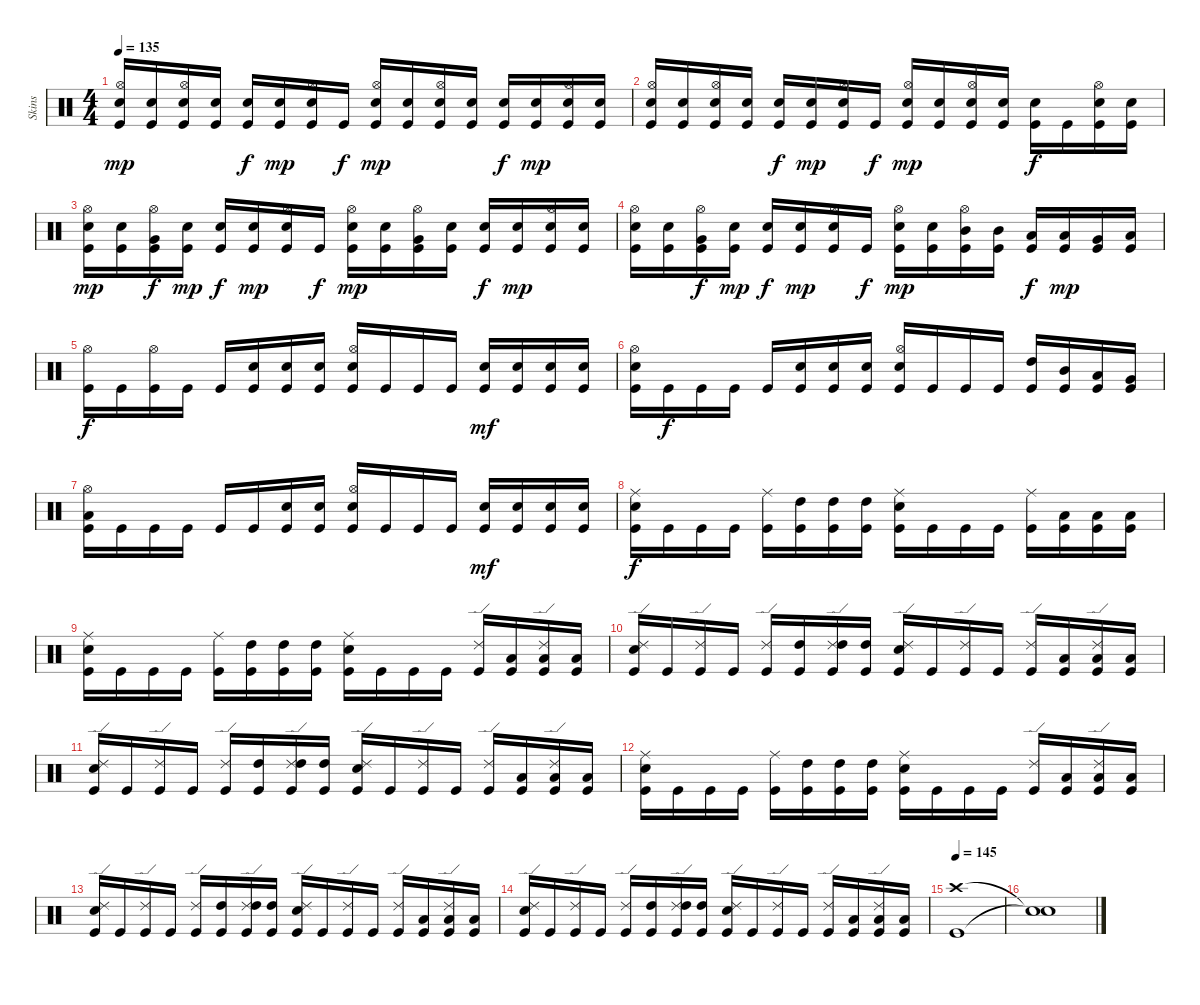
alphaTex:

\track ("Skins" "Skins") {instrument percussion}
\staff {score}
\articulation defaults
\ts (4 4)
\tempo 135
\clef neutral
\ks c
("Electric Snare (hit)" "Hi-Hat (open)" "Kick (hit)").16{dy mp} ("Electric Snare (hit)" "Kick (hit)").16 ("Electric Snare (hit)" "Hi-Hat (open)" "Kick (hit)").16 ("Electric Snare (hit)" "Kick (hit)").16 ("Snare (hit) 2" "Kick (hit)").16{dy f} ("Electric Snare (hit)" "Kick (hit)").16{dy mp} ("Electric Snare (hit)" "Hi-Hat (open)" "Kick (hit)").16 "Kick (hit)".16{dy f} ("Electric Snare (hit)" "Hi-Hat (open)" "Kick (hit)").16{dy mp} ("Electric Snare (hit)" "Kick (hit)").16 ("Electric Snare (hit)" "Hi-Hat (open)" "Kick (hit)").16 ("Electric Snare (hit)" "Kick (hit)").16 ("Snare (hit) 2" "Kick (hit)").16{dy f} ("Electric Snare (hit)" "Kick (hit)").16{dy mp} ("Electric Snare (hit)" "Hi-Hat (open)" "Kick (hit)").16 ("Electric Snare (hit)" "Kick (hit)").16 |
("Electric Snare (hit)" "Hi-Hat (open)" "Kick (hit)").16 ("Electric Snare (hit)" "Kick (hit)").16 ("Electric Snare (hit)" "Hi-Hat (open)" "Kick (hit)").16 ("Electric Snare (hit)" "Kick (hit)").16 ("Snare (hit) 2" "Kick (hit)").16{dy f} ("Electric Snare (hit)" "Kick (hit)").16{dy mp} ("Electric Snare (hit)" "Hi-Hat (open)" "Kick (hit)").16 "Kick (hit)".16{dy f} ("Electric Snare (hit)" "Hi-Hat (open)" "Kick (hit)").16{dy mp} ("Electric Snare (hit)" "Kick (hit)").16 ("Electric Snare (hit)" "Hi-Hat (open)" "Kick (hit)").16 ("Electric Snare (hit)" "Kick (hit)").16 ("Snare (hit) 2" "Kick (hit)").16{dy f} "Kick (hit)".16 ("Snare (hit) 2" "Hi-Hat (open)" "Kick (hit)").16 ("Snare (hit) 2" "Kick (hit)").16 |
("Electric Snare (hit)" "Hi-Hat (open)" "Kick (hit)").16{dy mp} ("Electric Snare (hit)" "Kick (hit)").16 ("Very Low Tom (hit)" "Hi-Hat (open)" "Kick (hit)").16{dy f} ("Electric Snare (hit)" "Kick (hit)").16{dy mp} ("Snare (hit) 2" "Kick (hit)").16{dy f} ("Electric Snare (hit)" "Kick (hit)").16{dy mp} ("Electric Snare (hit)" "Hi-Hat (open)" "Kick (hit)").16 "Kick (hit)".16{dy f} ("Electric Snare (hit)" "Hi-Hat (open)" "Kick (hit)").16{dy mp} ("Electric Snare (hit)" "Kick (hit)").16 ("Very Low Tom (hit)" "Hi-Hat (open)" "Kick (hit)").16 ("Electric Snare (hit)" "Kick (hit)").16 ("Snare (hit) 2" "Kick (hit)").16{dy f} ("Electric Snare (hit)" "Kick (hit)").16{dy mp} ("Electric Snare (hit)" "Hi-Hat (open)" "Kick (hit)").16 ("Electric Snare (hit)" "Kick (hit)").16 |
("Electric Snare (hit)" "Hi-Hat (open)" "Kick (hit)").16 ("Electric Snare (hit)" "Kick (hit)").16 ("Very Low Tom (hit)" "Hi-Hat (open)" "Kick (hit)").16{dy f} ("Electric Snare (hit)" "Kick (hit)").16{dy mp} ("Snare (hit) 2" "Kick (hit)").16{dy f} ("Electric Snare (hit)" "Kick (hit)").16{dy mp} ("Electric Snare (hit)" "Hi-Hat (open)" "Kick (hit)").16 "Kick (hit)".16{dy f} ("Electric Snare (hit)" "Hi-Hat (open)" "Kick (hit)").16{dy mp} ("Electric Snare (hit)" "Kick (hit)").16 ("Mid Tom (hit)" "Hi-Hat (open)" "Kick (hit)").16 ("Mid Tom (hit)" "Kick (hit)").16 ("Low Tom (hit)" "Kick (hit)").16{dy f} ("Low Tom (hit)" "Kick (hit)").16{dy mp} ("Very Low Tom (hit)" "Kick (hit)").16 ("Low Floor Tom (hit)" "Kick (hit)").16 |
("Hi-Hat (open)" "Kick (hit)").16{dy f} "Kick (hit)".16 ("Hi-Hat (open)" "Kick (hit)").16 "Kick (hit)".16 "Kick (hit)".16 ("Electric Snare (hit)" "Kick (hit)").16 ("Electric Snare (hit)" "Kick (hit)").16 ("Electric Snare (hit)" "Kick (hit)").16 ("Hi-Hat (open)" "Electric Snare (hit)" "Kick (hit)").16 "Kick (hit)".16 "Kick (hit)".16 "Kick (hit)".16 ("Snare (hit) 2" "Kick (hit)").16{dy mf} ("Snare (hit) 2" "Kick (hit)").16 ("Snare (hit) 2" "Kick (hit)").16 ("Snare (hit) 2" "Kick (hit)").16 |
("Hi-Hat (open)" "Snare (hit) 2" "Kick (hit)").16 "Kick (hit)".16{dy f} "Kick (hit)".16 "Kick (hit)".16 "Kick (hit)".16 ("Electric Snare (hit)" "Kick (hit)").16 ("Electric Snare (hit)" "Kick (hit)").16 ("Electric Snare (hit)" "Kick (hit)").16 ("Hi-Hat (open)" "Electric Snare (hit)" "Kick (hit)").16 "Kick (hit)".16 "Kick (hit)".16 "Kick (hit)".16 ("High Tom (hit)" "Kick (hit)").16 ("Mid Tom (hit)" "Kick (hit)").16 ("Low Tom (hit)" "Kick (hit)").16 ("Very Low Tom (hit)" "Kick (hit)").16 |
("Hi-Hat (open)" "Low Floor Tom (hit)" "Kick (hit)").16 "Kick (hit)".16 "Kick (hit)".16 "Kick (hit)".16 "Kick (hit)".16 "Kick (hit)".16 ("Electric Snare (hit)" "Kick (hit)").16 ("Electric Snare (hit)" "Kick (hit)").16 ("Hi-Hat (open)" "Electric Snare (hit)" "Kick (hit)").16 "Kick (hit)".16 "Kick (hit)".16 "Kick (hit)".16 ("Snare (hit) 2" "Kick (hit)").16{dy mf} ("Snare (hit) 2" "Kick (hit)").16 ("Snare (hit) 2" "Kick (hit)").16 ("Snare (hit) 2" "Kick (hit)").16 |
("Ride (middle)" "Snare (hit) 2" "Kick (hit)").16{dy f} "Kick (hit)".16 "Kick (hit)".16 "Kick (hit)".16 ("Ride (middle)" "Kick (hit)").16 ("High Tom (hit)" "Kick (hit)").16 ("High Tom (hit)" "Kick (hit)").16 ("High Tom (hit)" "Kick (hit)").16 ("Ride (middle)" "Snare (hit) 2" "Kick (hit)").16 "Kick (hit)".16 "Kick (hit)".16 "Kick (hit)".16 ("Ride (middle)" "Kick (hit)").16 ("Low Tom (hit)" "Kick (hit)").16 ("Low Tom (hit)" "Kick (hit)").16 ("Low Tom (hit)" "Kick (hit)").16 |
("Ride (middle)" "Snare (hit) 2" "Kick (hit)").16 "Kick (hit)".16 "Kick (hit)".16 "Kick (hit)".16 ("Ride (middle)" "Kick (hit)").16 ("High Tom (hit)" "Kick (hit)").16 ("High Tom (hit)" "Kick (hit)").16 ("High Tom (hit)" "Kick (hit)").16 ("Ride (middle)" "Snare (hit) 2" "Kick (hit)").16 "Kick (hit)".16 "Kick (hit)".16 "Kick (hit)".16 ("Ride (edge) 2" "Kick (hit)").16 ("Low Tom (hit)" "Kick (hit)").16 ("Ride (edge) 2" "Low Tom (hit)" "Kick (hit)").16 ("Low Tom (hit)" "Kick (hit)").16 |
("Ride (edge) 2" "Snare (hit) 2" "Kick (hit)").16 "Kick (hit)".16 ("Ride (edge) 2" "Kick (hit)").16 "Kick (hit)".16 ("Ride (edge) 2" "Kick (hit)").16 ("High Tom (hit)" "Kick (hit)").16 ("Ride (edge) 2" "High Tom (hit)" "Kick (hit)").16 ("High Tom (hit)" "Kick (hit)").16 ("Ride (edge) 2" "Snare (hit) 2" "Kick (hit)").16 "Kick (hit)".16 ("Ride (edge) 2" "Kick (hit)").16 "Kick (hit)".16 ("Ride (edge) 2" "Kick (hit)").16 ("Low Tom (hit)" "Kick (hit)").16 ("Ride (edge) 2" "Low Tom (hit)" "Kick (hit)").16 ("Low Tom (hit)" "Kick (hit)").16 |
("Ride (edge) 2" "Snare (hit) 2" "Kick (hit)").16 "Kick (hit)".16 ("Ride (edge) 2" "Kick (hit)").16 "Kick (hit)".16 ("Ride (edge) 2" "Kick (hit)").16 ("High Tom (hit)" "Kick (hit)").16 ("Ride (edge) 2" "High Tom (hit)" "Kick (hit)").16 ("High Tom (hit)" "Kick (hit)").16 ("Ride (edge) 2" "Snare (hit) 2" "Kick (hit)").16 "Kick (hit)".16 ("Ride (edge) 2" "Kick (hit)").16 "Kick (hit)".16 ("Ride (edge) 2" "Kick (hit)").16 ("Low Tom (hit)" "Kick (hit)").16 ("Ride (edge) 2" "Low Tom (hit)" "Kick (hit)").16 ("Low Tom (hit)" "Kick (hit)").16 |
("Ride (middle)" "Snare (hit) 2" "Kick (hit)").16 "Kick (hit)".16 "Kick (hit)".16 "Kick (hit)".16 ("Ride (middle)" "Kick (hit)").16 ("High Tom (hit)" "Kick (hit)").16 ("High Tom (hit)" "Kick (hit)").16 ("High Tom (hit)" "Kick (hit)").16 ("Ride (middle)" "Snare (hit) 2" "Kick (hit)").16 "Kick (hit)".16 "Kick (hit)".16 "Kick (hit)".16 ("Ride (edge) 2" "Kick (hit)").16 ("Low Tom (hit)" "Kick (hit)").16 ("Ride (edge) 2" "Low Tom (hit)" "Kick (hit)").16 ("Low Tom (hit)" "Kick (hit)").16 |
("Ride (edge) 2" "Snare (hit) 2" "Kick (hit)").16 "Kick (hit)".16 ("Ride (edge) 2" "Kick (hit)").16 "Kick (hit)".16 ("Ride (edge) 2" "Kick (hit)").16 ("High Tom (hit)" "Kick (hit)").16 ("Ride (edge) 2" "High Tom (hit)" "Kick (hit)").16 ("High Tom (hit)" "Kick (hit)").16 ("Ride (edge) 2" "Snare (hit) 2" "Kick (hit)").16 "Kick (hit)".16 ("Ride (edge) 2" "Kick (hit)").16 "Kick (hit)".16 ("Ride (edge) 2" "Kick (hit)").16 ("Low Tom (hit)" "Kick (hit)").16 ("Ride (edge) 2" "Low Tom (hit)" "Kick (hit)").16 ("Low Tom (hit)" "Kick (hit)").16 |
("Ride (edge) 2" "Snare (hit) 2" "Kick (hit)").16 "Kick (hit)".16 ("Ride (edge) 2" "Kick (hit)").16 "Kick (hit)".16 ("Ride (edge) 2" "Kick (hit)").16 ("High Tom (hit)" "Kick (hit)").16 ("Ride (edge) 2" "High Tom (hit)" "Kick (hit)").16 ("High Tom (hit)" "Kick (hit)").16 ("Ride (edge) 2" "Snare (hit) 2" "Kick (hit)").16 "Kick (hit)".16 ("Ride (edge) 2" "Kick (hit)").16 "Kick (hit)".16 ("Ride (edge) 2" "Kick (hit)").16 ("Low Tom (hit)" "Kick (hit)").16 ("Ride (edge) 2" "Low Tom (hit)" "Kick (hit)").16 ("Low Tom (hit)" "Kick (hit)").16 |
\tempo 145
("Crash high (hit)" "Kick (hit)").1 |
("Snare (hit)"{t} "Snare (hit)"{t}).1
